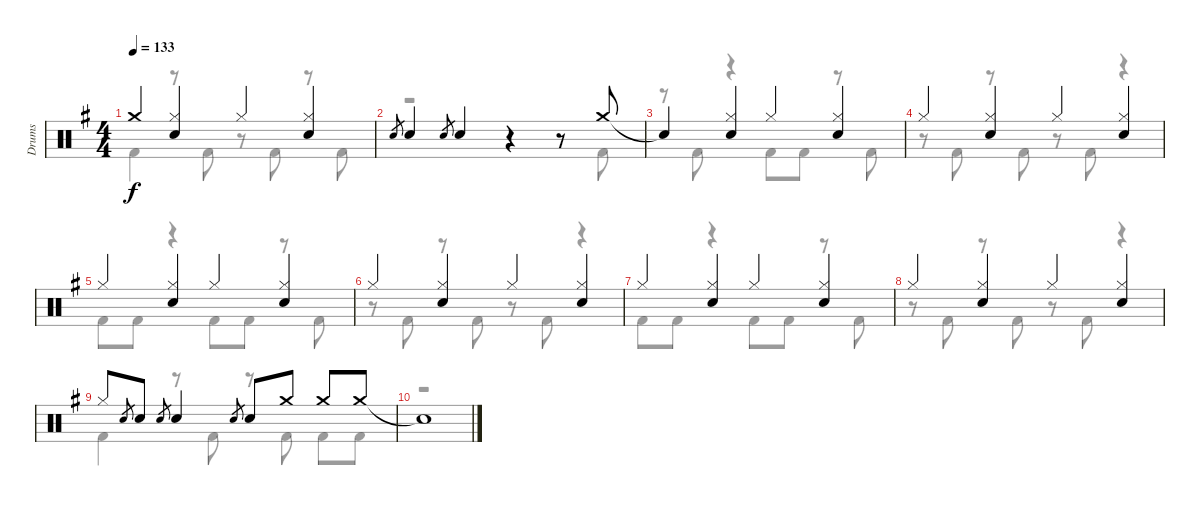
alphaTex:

\track ("Drums" "Drums") {instrument percussion}
\staff {score}
\articulation defaults
\voice
\ts (4 4)
\tempo 133
\clef neutral
\ks g "Crash medium (hit)".4{dy f}
("Hi-Hat (closed)" "Snare (hit) 2").4 "Hi-Hat (closed)".4 ("Hi-Hat (closed)" "Snare (hit) 2").4 |
"Snare (hit) 2".8{gr} "Snare (hit) 2".4 "Snare (hit) 2".8{gr} "Snare (hit) 2".4 r.4 r.8 "Crash medium (hit)".8 |
"Snare (hit)"{t}.4 ("Hi-Hat (closed)" "Snare (hit) 2").4 "Hi-Hat (closed)".4 ("Hi-Hat (closed)" "Snare (hit) 2").4 |
"Hi-Hat (closed)".4 ("Hi-Hat (closed)" "Snare (hit) 2").4 "Hi-Hat (closed)".4 ("Hi-Hat (closed)" "Snare (hit) 2").4 |
"Hi-Hat (closed)".4 ("Hi-Hat (closed)" "Snare (hit) 2").4 "Hi-Hat (closed)".4 ("Hi-Hat (closed)" "Snare (hit) 2").4 |
"Hi-Hat (closed)".4 ("Hi-Hat (closed)" "Snare (hit) 2").4 "Hi-Hat (closed)".4 ("Hi-Hat (closed)" "Snare (hit) 2").4 |
"Hi-Hat (closed)".4 ("Hi-Hat (closed)" "Snare (hit) 2").4 "Hi-Hat (closed)".4 ("Hi-Hat (closed)" "Snare (hit) 2").4 |
"Hi-Hat (closed)".4 ("Hi-Hat (closed)" "Snare (hit) 2").4 "Hi-Hat (closed)".4 ("Hi-Hat (closed)" "Snare (hit) 2").4 |
"Hi-Hat (closed)".8 "Snare (hit) 2".8{gr} "Snare (hit) 2".8 "Snare (hit) 2".8{gr} "Snare (hit) 2".4 "Snare (hit) 2".8{gr} "Snare (hit) 2".8 "Crash medium (hit)".8 "Crash medium (hit)".8 "Crash medium (hit)".8 |
"Snare (hit)"{t}.1
\voice
\clef neutral
\ottava regular
\simile none
\ks g "Kick (hit) 2".4{dy f}
r.8 "Kick (hit) 2".8 r.8 "Kick (hit) 2".8 r.8 "Kick (hit) 2".8 |
r.2 r.4 r.8 "Kick (hit) 2".8 |
r.8 "Kick (hit) 2".8 r.4 "Kick (hit) 2".8 "Kick (hit) 2".8 r.8 "Kick (hit) 2".8 |
r.8 "Kick (hit) 2".8 r.8 "Kick (hit) 2".8 r.8 "Kick (hit) 2".8 r.4 |
"Kick (hit) 2".8 "Kick (hit) 2".8 r.4 "Kick (hit) 2".8 "Kick (hit) 2".8 r.8 "Kick (hit) 2".8 |
r.8 "Kick (hit) 2".8 r.8 "Kick (hit) 2".8 r.8 "Kick (hit) 2".8 r.4 |
"Kick (hit) 2".8 "Kick (hit) 2".8 r.4 "Kick (hit) 2".8 "Kick (hit) 2".8 r.8 "Kick (hit) 2".8 |
r.8 "Kick (hit) 2".8 r.8 "Kick (hit) 2".8 r.8 "Kick (hit) 2".8 r.4 |
"Kick (hit) 2".4 r.8 "Kick (hit) 2".8 r.8 "Kick (hit) 2".8 "Kick (hit) 2".8 "Kick (hit) 2".8 |
r.1
